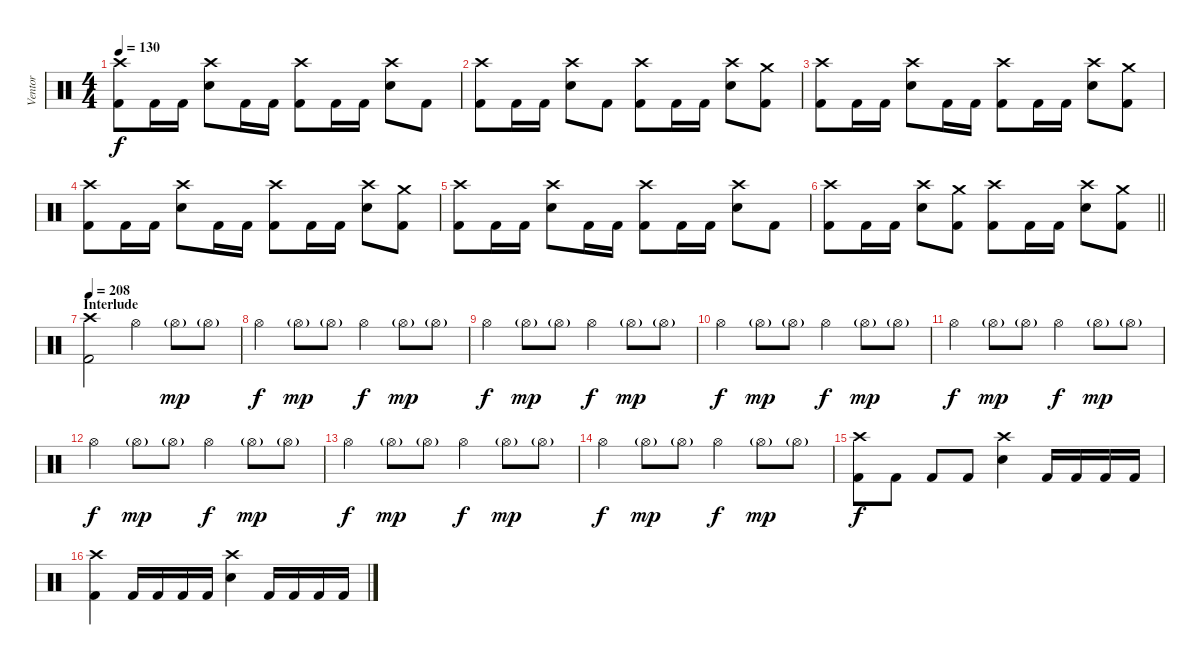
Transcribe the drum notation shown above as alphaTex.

\track ("Ventor" "Ventor") {instrument percussion}
\staff {score}
\articulation defaults
\ts (4 4)
\tempo 130
\clef neutral
\ks c
("Crash high (hit)" "Kick (hit) 2").8{dy f} "Kick (hit) 2".16 "Kick (hit) 2".16 ("Crash high (hit)" "Electric Snare (hit)").8 "Kick (hit) 2".16 "Kick (hit) 2".16 ("Crash high (hit)" "Kick (hit) 2").8 "Kick (hit) 2".16 "Kick (hit) 2".16 ("Crash high (hit)" "Electric Snare (hit)").8 "Kick (hit) 2".8 |
("Crash high (hit)" "Kick (hit) 2").8 "Kick (hit) 2".16 "Kick (hit) 2".16 ("Crash high (hit)" "Electric Snare (hit)").8 "Kick (hit) 2".8 ("Crash high (hit)" "Kick (hit) 2").8 "Kick (hit) 2".16 "Kick (hit) 2".16 ("Crash high (hit)" "Electric Snare (hit)").8 ("Crash medium (hit)" "Kick (hit) 2").8 |
("Crash high (hit)" "Kick (hit) 2").8 "Kick (hit) 2".16 "Kick (hit) 2".16 ("Crash high (hit)" "Electric Snare (hit)").8 "Kick (hit) 2".16 "Kick (hit) 2".16 ("Crash high (hit)" "Kick (hit) 2").8 "Kick (hit) 2".16 "Kick (hit) 2".16 ("Crash high (hit)" "Electric Snare (hit)").8 ("Crash medium (hit)" "Kick (hit) 2").8 |
("Crash high (hit)" "Kick (hit) 2").8 "Kick (hit) 2".16 "Kick (hit) 2".16 ("Crash high (hit)" "Electric Snare (hit)").8 "Kick (hit) 2".16 "Kick (hit) 2".16 ("Crash high (hit)" "Kick (hit) 2").8 "Kick (hit) 2".16 "Kick (hit) 2".16 ("Crash high (hit)" "Electric Snare (hit)").8 ("Crash medium (hit)" "Kick (hit) 2").8 |
("Crash high (hit)" "Kick (hit) 2").8 "Kick (hit) 2".16 "Kick (hit) 2".16 ("Crash high (hit)" "Electric Snare (hit)").8 "Kick (hit) 2".16 "Kick (hit) 2".16 ("Crash high (hit)" "Kick (hit) 2").8 "Kick (hit) 2".16 "Kick (hit) 2".16 ("Crash high (hit)" "Electric Snare (hit)").8 "Kick (hit) 2".8 |
\barLineRight lightlight
("Crash high (hit)" "Kick (hit) 2").8 "Kick (hit) 2".16 "Kick (hit) 2".16 ("Crash high (hit)" "Electric Snare (hit)").8 ("Crash medium (hit)" "Kick (hit) 2").8 ("Crash high (hit)" "Kick (hit) 2").8 "Kick (hit) 2".16 "Kick (hit) 2".16 ("Crash high (hit)" "Electric Snare (hit)").8 ("Crash medium (hit)" "Kick (hit) 2").8 |
\section ("" "Interlude")
\tempo 208
("Crash high (hit)" "Kick (hit) 2").2 "Hi-Hat (open)".4 "Hi-Hat (open)"{g}.8{dy mp} "Hi-Hat (open)"{g}.8 |
"Hi-Hat (open)".4{dy f} "Hi-Hat (open)"{g}.8{dy mp} "Hi-Hat (open)"{g}.8 "Hi-Hat (open)".4{dy f} "Hi-Hat (open)"{g}.8{dy mp} "Hi-Hat (open)"{g}.8 |
"Hi-Hat (open)".4{dy f} "Hi-Hat (open)"{g}.8{dy mp} "Hi-Hat (open)"{g}.8 "Hi-Hat (open)".4{dy f} "Hi-Hat (open)"{g}.8{dy mp} "Hi-Hat (open)"{g}.8 |
"Hi-Hat (open)".4{dy f} "Hi-Hat (open)"{g}.8{dy mp} "Hi-Hat (open)"{g}.8 "Hi-Hat (open)".4{dy f} "Hi-Hat (open)"{g}.8{dy mp} "Hi-Hat (open)"{g}.8 |
"Hi-Hat (open)".4{dy f} "Hi-Hat (open)"{g}.8{dy mp} "Hi-Hat (open)"{g}.8 "Hi-Hat (open)".4{dy f} "Hi-Hat (open)"{g}.8{dy mp} "Hi-Hat (open)"{g}.8 |
"Hi-Hat (open)".4{dy f} "Hi-Hat (open)"{g}.8{dy mp} "Hi-Hat (open)"{g}.8 "Hi-Hat (open)".4{dy f} "Hi-Hat (open)"{g}.8{dy mp} "Hi-Hat (open)"{g}.8 |
"Hi-Hat (open)".4{dy f} "Hi-Hat (open)"{g}.8{dy mp} "Hi-Hat (open)"{g}.8 "Hi-Hat (open)".4{dy f} "Hi-Hat (open)"{g}.8{dy mp} "Hi-Hat (open)"{g}.8 |
"Hi-Hat (open)".4{dy f} "Hi-Hat (open)"{g}.8{dy mp} "Hi-Hat (open)"{g}.8 "Hi-Hat (open)".4{dy f} "Hi-Hat (open)"{g}.8{dy mp} "Hi-Hat (open)"{g}.8 |
("Crash high (hit)" "Kick (hit) 2").8{dy f} "Kick (hit) 2".8 "Kick (hit) 2".8 "Kick (hit) 2".8 ("Crash high (hit)" "Electric Snare (hit)").4 "Kick (hit) 2".16 "Kick (hit) 2".16 "Kick (hit) 2".16 "Kick (hit) 2".16 |
("Crash high (hit)" "Kick (hit) 2").4 "Kick (hit) 2".16 "Kick (hit) 2".16 "Kick (hit) 2".16 "Kick (hit) 2".16 ("Crash high (hit)" "Electric Snare (hit)").4 "Kick (hit) 2".16 "Kick (hit) 2".16 "Kick (hit) 2".16 "Kick (hit) 2".16
